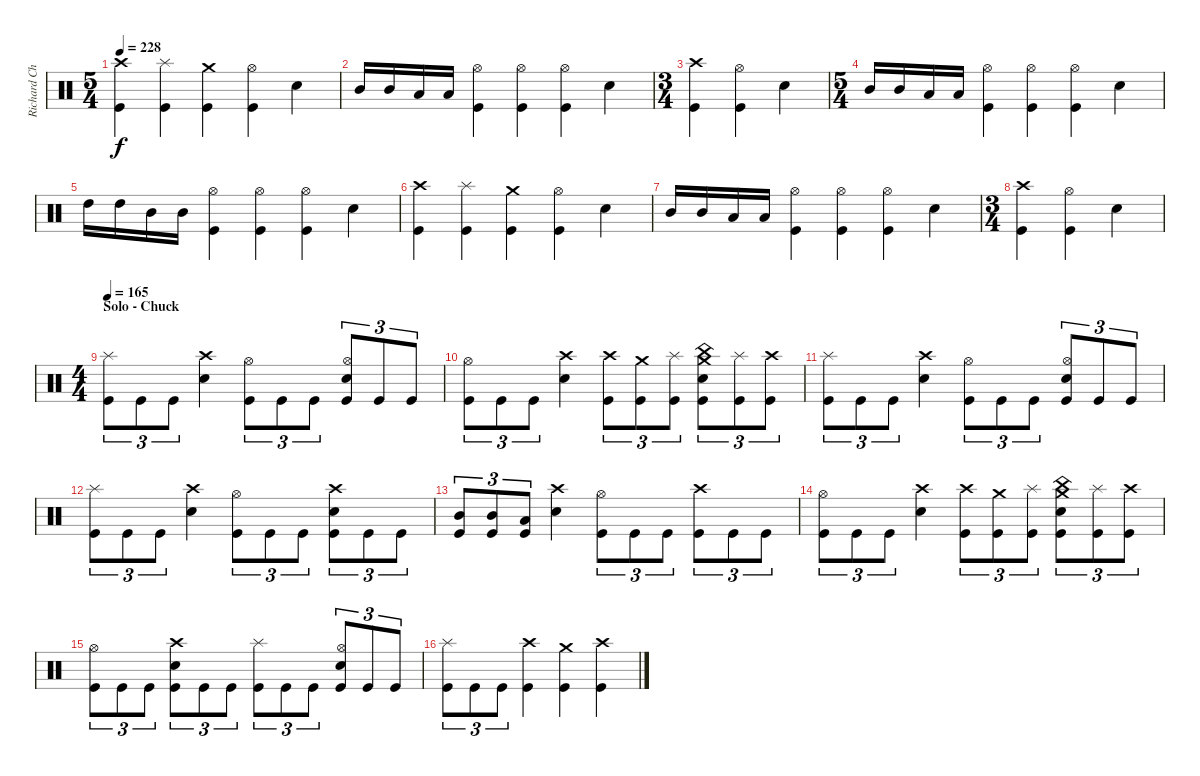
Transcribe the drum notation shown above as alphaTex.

\track ("Richard Christy " "Richard Ch") {instrument percussion}
\staff {score}
\articulation defaults
\ts (5 4)
\tempo 228
\clef neutral
\ks c
("Crash high (hit)" "Kick (hit)").4{dy f} ("Splash (hit)" "Kick (hit)").4 ("Crash medium (hit)" "Kick (hit)").4 ("Hi-Hat (open)" "Kick (hit)").4 "Electric Snare (hit)".4 |
"Mid Tom (hit)".16 "Mid Tom (hit)".16 "Low Tom (hit)".16 "Low Tom (hit)".16 ("Hi-Hat (open)" "Kick (hit)").4 ("Hi-Hat (open)" "Kick (hit)").4 ("Hi-Hat (open)" "Kick (hit)").4 "Electric Snare (hit)".4 |
\ts (3 4)
("Crash high (hit)" "Kick (hit)").4 ("Hi-Hat (open)" "Kick (hit)").4 "Electric Snare (hit)".4 |
\ts (5 4)
"Mid Tom (hit)".16 "Mid Tom (hit)".16 "Low Tom (hit)".16 "Low Tom (hit)".16 ("Hi-Hat (open)" "Kick (hit)").4 ("Hi-Hat (open)" "Kick (hit)").4 ("Hi-Hat (open)" "Kick (hit)").4 "Electric Snare (hit)".4 |
"High Tom (hit)".16 "High Tom (hit)".16 "Mid Tom (hit)".16 "Mid Tom (hit)".16 ("Hi-Hat (open)" "Kick (hit)").4 ("Hi-Hat (open)" "Kick (hit)").4 ("Hi-Hat (open)" "Kick (hit)").4 "Electric Snare (hit)".4 |
("Crash high (hit)" "Kick (hit)").4 ("Splash (hit)" "Kick (hit)").4 ("Crash medium (hit)" "Kick (hit)").4 ("Hi-Hat (open)" "Kick (hit)").4 "Electric Snare (hit)".4 |
"Mid Tom (hit)".16 "Mid Tom (hit)".16 "Low Tom (hit)".16 "Low Tom (hit)".16 ("Hi-Hat (open)" "Kick (hit)").4 ("Hi-Hat (open)" "Kick (hit)").4 ("Hi-Hat (open)" "Kick (hit)").4 "Electric Snare (hit)".4 |
\ts (3 4)
("Crash high (hit)" "Kick (hit)").4 ("Hi-Hat (open)" "Kick (hit)").4 "Electric Snare (hit)".4 |
\ts (4 4)
\section ("" "Solo - Chuck")
\tempo 165
("Splash (hit)" "Kick (hit)").8{tu (3 2)} "Kick (hit)".8{tu (3 2)} "Kick (hit)".8{tu (3 2)} ("Crash high (hit)" "Electric Snare (hit)").4 ("Hi-Hat (open)" "Kick (hit)").8{tu (3 2)} "Kick (hit)".8{tu (3 2)} "Kick (hit)".8{tu (3 2)} ("Hi-Hat (open)" "Electric Snare (hit)" "Kick (hit)").8{tu (3 2)} "Kick (hit)".8{tu (3 2)} "Kick (hit)".8{tu (3 2)} |
("Hi-Hat (open)" "Kick (hit)").8{tu (3 2)} "Kick (hit)".8{tu (3 2)} "Kick (hit)".8{tu (3 2)} ("Crash high (hit)" "Electric Snare (hit)").4 ("Crash high (hit)" "Kick (hit)").8{tu (3 2)} ("Crash medium (hit)" "Kick (hit)").8{tu (3 2)} ("Splash (hit)" "Kick (hit)").8{tu (3 2)} ("Crash medium (hit)" "China (hit)" "Electric Snare (hit)" "Kick (hit)").8{tu (3 2)} ("Splash (hit)" "Kick (hit)").8{tu (3 2)} ("Crash high (hit)" "Kick (hit)").8{tu (3 2)} |
("Splash (hit)" "Kick (hit)").8{tu (3 2)} "Kick (hit)".8{tu (3 2)} "Kick (hit)".8{tu (3 2)} ("Crash high (hit)" "Electric Snare (hit)").4 ("Hi-Hat (open)" "Kick (hit)").8{tu (3 2)} "Kick (hit)".8{tu (3 2)} "Kick (hit)".8{tu (3 2)} ("Hi-Hat (open)" "Electric Snare (hit)" "Kick (hit)").8{tu (3 2)} "Kick (hit)".8{tu (3 2)} "Kick (hit)".8{tu (3 2)} |
("Splash (hit)" "Kick (hit)").8{tu (3 2)} "Kick (hit)".8{tu (3 2)} "Kick (hit)".8{tu (3 2)} ("Crash high (hit)" "Electric Snare (hit)").4 ("Hi-Hat (open)" "Kick (hit)").8{tu (3 2)} "Kick (hit)".8{tu (3 2)} "Kick (hit)".8{tu (3 2)} ("Crash high (hit)" "Electric Snare (hit)" "Kick (hit)").8{tu (3 2)} "Kick (hit)".8{tu (3 2)} "Kick (hit)".8{tu (3 2)} |
("Mid Tom (hit)" "Kick (hit)").8{tu (3 2)} ("Mid Tom (hit)" "Kick (hit)").8{tu (3 2)} ("Low Tom (hit)" "Kick (hit)").8{tu (3 2)} ("Crash high (hit)" "Electric Snare (hit)").4 ("Hi-Hat (open)" "Kick (hit)").8{tu (3 2)} "Kick (hit)".8{tu (3 2)} "Kick (hit)".8{tu (3 2)} ("Crash high (hit)" "Kick (hit)").8{tu (3 2)} "Kick (hit)".8{tu (3 2)} "Kick (hit)".8{tu (3 2)} |
("Hi-Hat (open)" "Kick (hit)").8{tu (3 2)} "Kick (hit)".8{tu (3 2)} "Kick (hit)".8{tu (3 2)} ("Crash high (hit)" "Electric Snare (hit)").4 ("Crash high (hit)" "Kick (hit)").8{tu (3 2)} ("Crash medium (hit)" "Kick (hit)").8{tu (3 2)} ("Splash (hit)" "Kick (hit)").8{tu (3 2)} ("Crash medium (hit)" "China (hit)" "Electric Snare (hit)" "Kick (hit)").8{tu (3 2)} ("Splash (hit)" "Kick (hit)").8{tu (3 2)} ("Crash high (hit)" "Kick (hit)").8{tu (3 2)} |
("Hi-Hat (open)" "Kick (hit)").8{tu (3 2)} "Kick (hit)".8{tu (3 2)} "Kick (hit)".8{tu (3 2)} ("Crash high (hit)" "Electric Snare (hit)" "Kick (hit)").8{tu (3 2)} "Kick (hit)".8{tu (3 2)} "Kick (hit)".8{tu (3 2)} ("Splash (hit)" "Kick (hit)").8{tu (3 2)} "Kick (hit)".8{tu (3 2)} "Kick (hit)".8{tu (3 2)} ("Hi-Hat (open)" "Electric Snare (hit)" "Kick (hit)").8{tu (3 2)} "Kick (hit)".8{tu (3 2)} "Kick (hit)".8{tu (3 2)} |
("Splash (hit)" "Kick (hit)").8{tu (3 2)} "Kick (hit)".8{tu (3 2)} "Kick (hit)".8{tu (3 2)} ("Crash high (hit)" "Kick (hit)").4 ("Crash medium (hit)" "Kick (hit)").4 ("Crash high (hit)" "Kick (hit)").4
